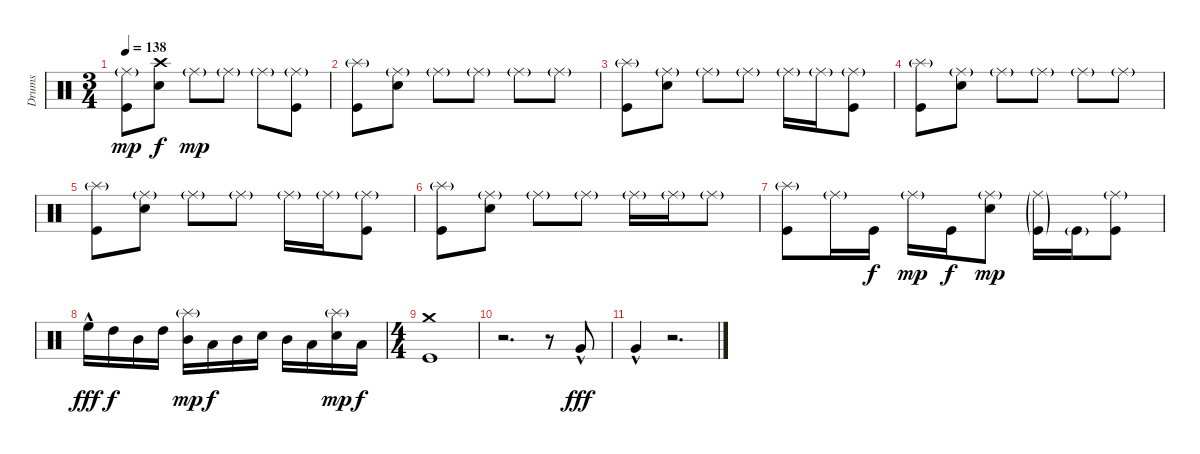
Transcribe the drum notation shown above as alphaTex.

\track ("Drums" "Drums") {instrument percussion}
\staff {score}
\articulation defaults
\ts (3 4)
\tempo 138
\clef neutral
\ks c
("Ride (middle)"{g} "Kick (hit)").8{dy mp} ("Crash high (hit)" "Electric Snare (hit)").8{dy f} "Ride (middle)"{g}.8{dy mp} "Ride (middle)"{g}.8 "Ride (middle)"{g}.8 ("Ride (middle)"{g} "Kick (hit)").8 |
("Splash (hit)"{g} "Kick (hit)").8 ("Ride (middle)"{g} "Electric Snare (hit)").8 "Ride (middle)"{g}.8 "Ride (middle)"{g}.8 "Ride (middle)"{g}.8 "Ride (middle)"{g}.8 |
("Splash (hit)"{g} "Kick (hit)").8 ("Ride (middle)"{g} "Electric Snare (hit)").8 "Ride (middle)"{g}.8 "Ride (middle)"{g}.8 "Ride (middle)"{g}.16 "Ride (middle)"{g}.16 ("Ride (middle)"{g} "Kick (hit)").8 |
("Splash (hit)"{g} "Kick (hit)").8 ("Ride (middle)"{g} "Electric Snare (hit)").8 "Ride (middle)"{g}.8 "Ride (middle)"{g}.8 "Ride (middle)"{g}.8 "Ride (middle)"{g}.8 |
("Splash (hit)"{g} "Kick (hit)").8 ("Ride (middle)"{g} "Electric Snare (hit)").8 "Ride (middle)"{g}.8 "Ride (middle)"{g}.8 "Ride (middle)"{g}.16 "Ride (middle)"{g}.16 ("Ride (middle)"{g} "Kick (hit)").8 |
("Splash (hit)"{g} "Kick (hit)").8 ("Ride (middle)"{g} "Electric Snare (hit)").8 "Ride (middle)"{g}.8 "Ride (middle)"{g}.8 "Ride (middle)"{g}.16 "Ride (middle)"{g}.16 "Ride (middle)"{g}.8 |
("Splash (hit)"{g} "Kick (hit)").8 "Ride (middle)"{g}.16 "Kick (hit)".16{dy f} "Ride (middle)"{g}.16{dy mp} "Kick (hit)".16{dy f} ("Ride (middle)"{g} "Electric Snare (hit)").8{dy mp} ("Ride (middle)"{g} "Kick (hit)"{g}).16 "Kick (hit)"{g}.16 ("Ride (middle)"{g} "Kick (hit)").8 |
"High Floor Tom (hit)"{hac}.16{dy fff} "High Tom (hit)".16{dy f} "Mid Tom (hit)".16 "High Tom (hit)".16 ("Splash (hit)"{g} "Mid Tom (hit)").16{dy mp} "Low Tom (hit)".16{dy f} "Mid Tom (hit)".16 "Electric Snare (hit)".16 "Mid Tom (hit)".16 "Low Tom (hit)".16 ("Splash (hit)"{g} "Electric Snare (hit)").16{dy mp} "Low Floor Tom (hit)".16{dy f} |
\ts (4 4)
("Crash medium (hit)" "Kick (hit)").1 |
r.2{d} r.8 "Very Low Tom (hit)"{hac}.8{dy fff} |
"Very Low Tom (hit)"{hac}.4 r.2{d}
